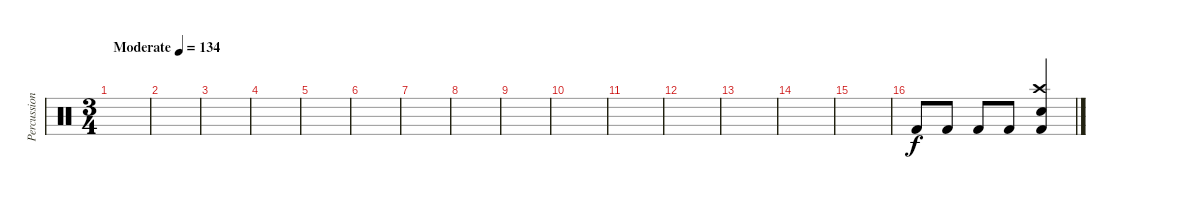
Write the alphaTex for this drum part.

\track ("Percussion" "Percussion") {instrument percussion}
\staff {score}
\articulation defaults
\ts (3 4)
\tempo (134 "Moderate")
\clef neutral
\ks c
|
|
|
|
|
|
|
|
|
|
|
|
|
|
|
"Kick (hit) 2".8 "Kick (hit) 2".8 "Kick (hit) 2".8 "Kick (hit) 2".8 ("Crash high (hit)" "Snare (hit) 2" "Kick (hit) 2").4
